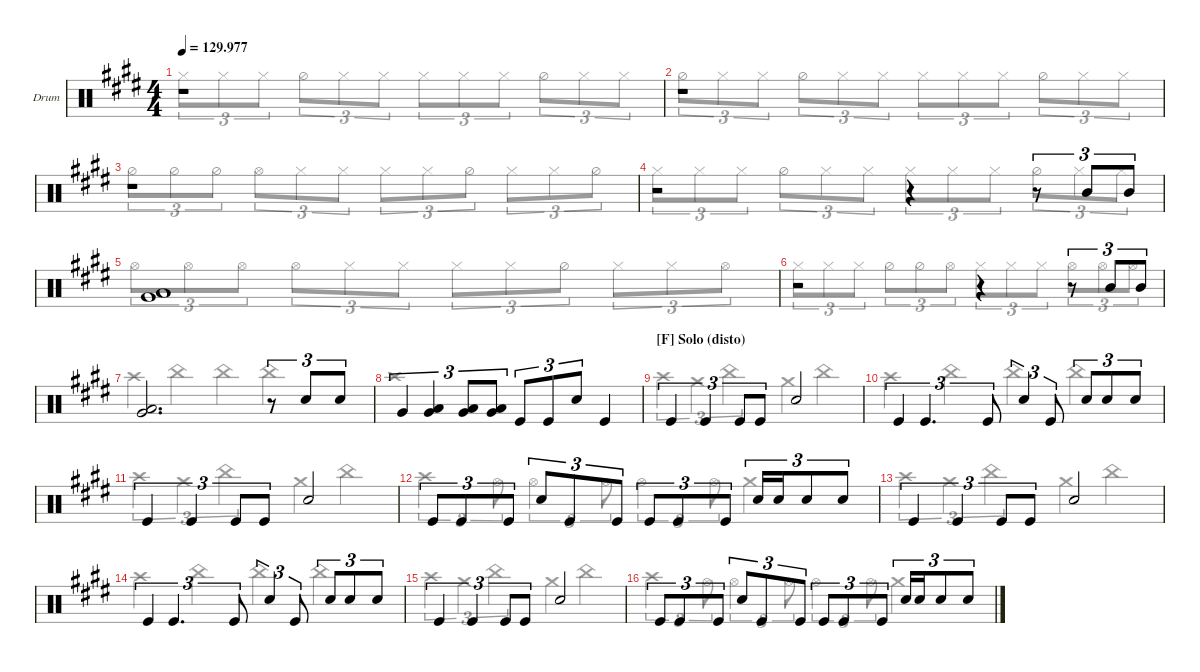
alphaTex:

\defaultSystemsLayout 4
\hideDynamics
\bracketExtendMode nobrackets
\firstSystemTrackNameOrientation horizontal
\otherSystemsTrackNameOrientation horizontal
\track ("BATTERIE" "Drum") {defaultSystemsLayout 4 instrument percussion}
\staff {score}
\articulation defaults
\voice
\ts (4 4)
\tempo
129.977
\accidentals auto
\clef neutral
\ottava regular
\simile none
\ks e
r.1{dy mf} |
r.1 |
r.1 |
r.2 r.4 r.8{tu (3 2)} "Mid Tom (hit)".8{tu (3 2)} "Mid Tom (hit)".8{tu (3 2)} |
("Very Low Tom (hit)" "Low Tom (hit)").1 |
r.2 r.4 r.8{tu (3 2)} "Mid Tom (hit)".8{tu (3 2)} "Mid Tom (hit)".8{tu (3 2)} |
("Very Low Tom (hit)" "Low Tom (hit)").2{d} r.8{tu (3 2)} "Snare (hit) 2".8{tu (3 2)} "Snare (hit) 2".8{tu (3 2)} |
"Very Low Tom (hit)".4{tu (3 2)} ("Low Tom (hit)" "Very Low Tom (hit)").4{tu (3 2)} ("Low Tom (hit)" "Very Low Tom (hit)").8{tu (3 2)} ("Low Tom (hit)" "Very Low Tom (hit)").8{tu (3 2)} "Kick (hit)".8{tu (3 2)} "Kick (hit)".8{tu (3 2)} "Snare (hit) 2".8{tu (3 2)} "Kick (hit)".4 |
\section ("F" "Solo (disto)")
"Kick (hit)".4{tu (3 2)} "Kick (hit)".4{tu (3 2)} "Kick (hit)".8{tu (3 2)} "Kick (hit)".8{tu (3 2)} "Snare (hit) 2".2 |
"Kick (hit)".4{tu (3 2)} "Kick (hit)".4{d tu (3 2)} "Kick (hit)".8{tu (3 2)} "Snare (hit) 2".4{tu (3 2)} "Kick (hit)".8{tu (3 2)} "Snare (hit) 2".8{tu (3 2)} "Snare (hit) 2".8{tu (3 2)} "Snare (hit) 2".8{tu (3 2)} |
"Kick (hit)".4{tu (3 2)} "Kick (hit)".4{tu (3 2)} "Kick (hit)".8{tu (3 2)} "Kick (hit)".8{tu (3 2)} "Snare (hit) 2".2 |
"Kick (hit)".8{tu (3 2)} "Kick (hit)".8{tu (3 2)} "Kick (hit)".8{tu (3 2)} "Snare (hit) 2".8{tu (3 2)} "Kick (hit)".8{tu (3 2)} "Kick (hit)".8{tu (3 2)} "Kick (hit)".8{tu (3 2)} "Kick (hit)".8{tu (3 2)} "Kick (hit)".8{tu (3 2)} "Snare (hit) 2".16{tu (3 2)} "Snare (hit) 2".16{tu (3 2)} "Snare (hit) 2".8{tu (3 2)} "Snare (hit) 2".8{tu (3 2)} |
"Kick (hit)".4{tu (3 2)} "Kick (hit)".4{tu (3 2)} "Kick (hit)".8{tu (3 2)} "Kick (hit)".8{tu (3 2)} "Snare (hit) 2".2 |
"Kick (hit)".4{tu (3 2)} "Kick (hit)".4{d tu (3 2)} "Kick (hit)".8{tu (3 2)} "Snare (hit) 2".4{tu (3 2)} "Kick (hit)".8{tu (3 2)} "Snare (hit) 2".8{tu (3 2)} "Snare (hit) 2".8{tu (3 2)} "Snare (hit) 2".8{tu (3 2)} |
"Kick (hit)".4{tu (3 2)} "Kick (hit)".4{tu (3 2)} "Kick (hit)".8{tu (3 2)} "Kick (hit)".8{tu (3 2)} "Snare (hit) 2".2 |
"Kick (hit)".8{tu (3 2)} "Kick (hit)".8{tu (3 2)} "Kick (hit)".8{tu (3 2)} "Snare (hit) 2".8{tu (3 2)} "Kick (hit)".8{tu (3 2)} "Kick (hit)".8{tu (3 2)} "Kick (hit)".8{tu (3 2)} "Kick (hit)".8{tu (3 2)} "Kick (hit)".8{tu (3 2)} "Snare (hit) 2".16{tu (3 2)} "Snare (hit) 2".16{tu (3 2)} "Snare (hit) 2".8{tu (3 2)} "Snare (hit) 2".8{tu (3 2)}
\voice
\clef neutral
\ottava regular
\simile none
\ks e "Hi-Hat (closed)".8{tu (3 2) dy mf} "Hi-Hat (closed)".8{tu (3 2)} "Hi-Hat (closed)".8{tu (3 2)} "Hi-Hat (half)".8{tu (3 2)} "Hi-Hat (closed)".8{tu (3 2)} "Hi-Hat (closed)".8{tu (3 2)} "Hi-Hat (closed)".8{tu (3 2)} "Hi-Hat (closed)".8{tu (3 2)} "Hi-Hat (closed)".8{tu (3 2)} "Hi-Hat (half)".8{tu (3 2)} "Hi-Hat (closed)".8{tu (3 2)} "Hi-Hat (closed)".8{tu (3 2)}
|
"Hi-Hat (half)".8{tu (3 2)} "Hi-Hat (closed)".8{tu (3 2)} "Hi-Hat (closed)".8{tu (3 2)} "Hi-Hat (half)".8{tu (3 2)} "Hi-Hat (closed)".8{tu (3 2)} "Hi-Hat (closed)".8{tu (3 2)} "Hi-Hat (closed)".8{tu (3 2)} "Hi-Hat (closed)".8{tu (3 2)} "Hi-Hat (closed)".8{tu (3 2)} "Hi-Hat (half)".8{tu (3 2)} "Hi-Hat (closed)".8{tu (3 2)} "Hi-Hat (closed)".8{tu (3 2)} |
"Hi-Hat (half)".8{tu (3 2)} "Hi-Hat (half)".8{tu (3 2)} "Hi-Hat (half)".8{tu (3 2)} "Hi-Hat (open)".8{tu (3 2)} "Hi-Hat (closed)".8{tu (3 2)} "Hi-Hat (closed)".8{tu (3 2)} "Hi-Hat (closed)".8{tu (3 2)} "Hi-Hat (closed)".8{tu (3 2)} "Hi-Hat (half)".8{tu (3 2)} "Hi-Hat (closed)".8{tu (3 2)} "Hi-Hat (closed)".8{tu (3 2)} "Hi-Hat (half)".8{tu (3 2)} |
"Hi-Hat (closed)".8{tu (3 2)} "Hi-Hat (closed)".8{tu (3 2)} "Hi-Hat (closed)".8{tu (3 2)} "Hi-Hat (half)".8{tu (3 2)} "Hi-Hat (closed)".8{tu (3 2)} "Hi-Hat (closed)".8{tu (3 2)} "Hi-Hat (closed)".8{tu (3 2)} "Hi-Hat (closed)".8{tu (3 2)} "Hi-Hat (closed)".8{tu (3 2)} "Hi-Hat (half)".8{tu (3 2)} "Hi-Hat (closed)".8{tu (3 2)} "Hi-Hat (closed)".8{tu (3 2)} |
"Hi-Hat (open)".8{tu (3 2)} "Hi-Hat (open)".8{tu (3 2)} "Hi-Hat (open)".8{tu (3 2)} "Hi-Hat (open)".8{tu (3 2)} "Hi-Hat (closed)".8{tu (3 2)} "Hi-Hat (closed)".8{tu (3 2)} "Hi-Hat (closed)".8{tu (3 2)} "Hi-Hat (closed)".8{tu (3 2)} "Hi-Hat (half)".8{tu (3 2)} "Hi-Hat (closed)".8{tu (3 2)} "Hi-Hat (closed)".8{tu (3 2)} "Hi-Hat (open)".8{tu (3 2)} |
"Hi-Hat (closed)".8{tu (3 2)} "Hi-Hat (closed)".8{tu (3 2)} "Hi-Hat (closed)".8{tu (3 2)} "Hi-Hat (half)".8{tu (3 2)} "Hi-Hat (half)".8{tu (3 2)} "Hi-Hat (open)".8{tu (3 2)} "Hi-Hat (closed)".8{tu (3 2)} "Hi-Hat (closed)".8{tu (3 2)} "Hi-Hat (closed)".8{tu (3 2)} "Hi-Hat (open)".8{tu (3 2)} "Hi-Hat (open)".8{tu (3 2)} "Hi-Hat (open)".8{tu (3 2)} |
"Crash high (hit)".4 "China (hit)".4 "China (hit)".4 "China (hit)".4 |
"Crash high (hit)".1 |
"Crash high (hit)".4{tu (3 2)} "Crash medium (hit)".4{tu (3 2)} "China (hit)".4{tu (3 2)} "Crash medium (hit)".4 "China (hit)".4 |
"Crash high (hit)".4 "China (hit)".4 "China (hit)".4 "China (hit)".4 |
"Crash high (hit)".4{tu (3 2)} "Crash medium (hit)".4{tu (3 2)} "China (hit)".4{tu (3 2)} "Crash medium (hit)".4 "China (hit)".4 |
"Crash high (hit)".4{tu (3 2)} "Hi-Hat (open)".8{tu (3 2)} "Hi-Hat (open)".4{tu (3 2)} "Hi-Hat (open)".8{tu (3 2)} "Hi-Hat (open)".4{tu (3 2)} "Hi-Hat (open)".8{tu (3 2)} "Crash medium (hit)".4 |
"Crash high (hit)".4{tu (3 2)} "Crash medium (hit)".4{tu (3 2)} "China (hit)".4{tu (3 2)} "Crash medium (hit)".4 "China (hit)".4 |
"Crash high (hit)".4 "China (hit)".4 "China (hit)".4 "China (hit)".4 |
"Crash high (hit)".4{tu (3 2)} "Crash medium (hit)".4{tu (3 2)} "China (hit)".4{tu (3 2)} "Crash medium (hit)".4 "China (hit)".4 |
"Crash high (hit)".4{tu (3 2)} "Hi-Hat (open)".8{tu (3 2)} "Hi-Hat (open)".4{tu (3 2)} "Hi-Hat (open)".8{tu (3 2)} "Hi-Hat (open)".4{tu (3 2)} "Hi-Hat (open)".8{tu (3 2)} "Crash medium (hit)".4
